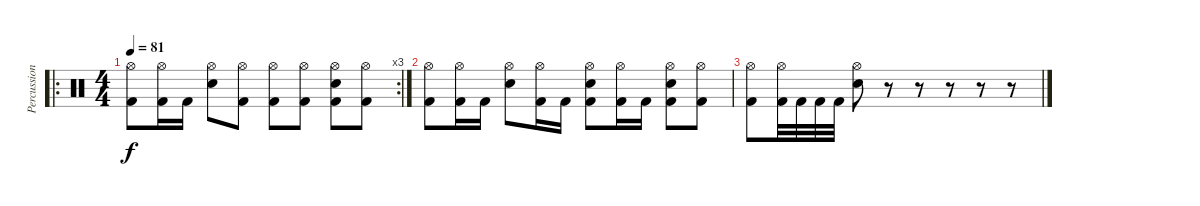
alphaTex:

\track ("Percussion" "Percussion") {instrument percussion}
\staff {score}
\articulation defaults
\ro
\rc 3
\ts (4 4)
\tempo 81
\clef neutral
\ks c
("Hi-Hat (open)" "Kick (hit) 2").8{dy f} ("Hi-Hat (open)" "Kick (hit) 2").16 "Kick (hit) 2".16 ("Hi-Hat (open)" "Electric Snare (hit)").8 ("Hi-Hat (open)" "Kick (hit) 2").8 ("Hi-Hat (open)" "Kick (hit) 2").8 ("Hi-Hat (open)" "Kick (hit) 2").8 ("Hi-Hat (open)" "Electric Snare (hit)" "Kick (hit) 2").8 ("Hi-Hat (open)" "Kick (hit) 2").8 |
("Hi-Hat (open)" "Kick (hit) 2").8 ("Hi-Hat (open)" "Kick (hit) 2").16 "Kick (hit) 2".16 ("Hi-Hat (open)" "Electric Snare (hit)").8 ("Hi-Hat (open)" "Kick (hit) 2").16 "Kick (hit) 2".16 ("Hi-Hat (open)" "Electric Snare (hit)" "Kick (hit) 2").8 ("Hi-Hat (open)" "Kick (hit) 2").16 "Kick (hit) 2".16 ("Hi-Hat (open)" "Electric Snare (hit)" "Kick (hit) 2").8 ("Hi-Hat (open)" "Kick (hit) 2").8 |
("Hi-Hat (open)" "Kick (hit) 2").8 ("Hi-Hat (open)" "Kick (hit) 2").32 "Kick (hit) 2".32 "Kick (hit) 2".32 "Kick (hit) 2".32 ("Hi-Hat (open)" "Electric Snare (hit)").8 r.8 r.8 r.8 r.8 r.8
